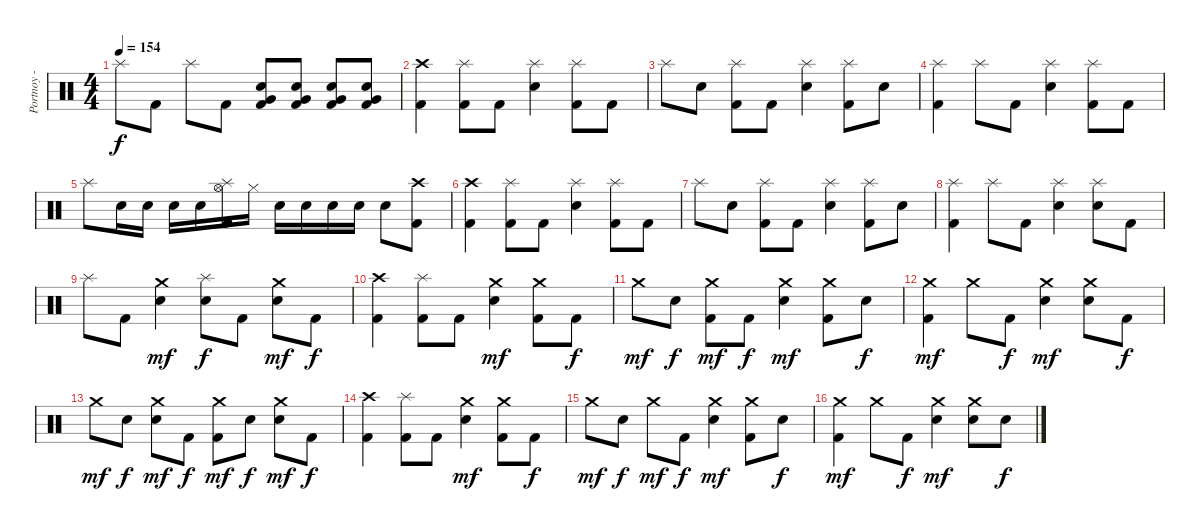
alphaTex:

\track ("Portnoy - Drums" "Portnoy - ") {instrument percussion}
\staff {score}
\articulation defaults
\ts (4 4)
\tempo 154
\clef neutral
\ks c "Splash (hit)".8{dy f} "Kick (hit) 2".8 "Splash (hit)".8 "Kick (hit) 2".8
("Electric Snare (hit)" "Kick (hit) 2" "Very Low Tom (hit)").8 ("Electric Snare (hit)" "Kick (hit) 2" "Very Low Tom (hit)").8 ("Electric Snare (hit)" "Kick (hit) 2" "Very Low Tom (hit)").8 ("Electric Snare (hit)" "Kick (hit) 2" "Very Low Tom (hit)").8 |
("Kick (hit) 2" "Crash high (hit)").4 ("Kick (hit) 2" "Splash (hit)").8 "Kick (hit) 2".8 ("Electric Snare (hit)" "Splash (hit)").4 ("Kick (hit) 2" "Splash (hit)").8 "Kick (hit) 2".8 |
"Splash (hit)".8 "Electric Snare (hit)".8 ("Kick (hit) 2" "Splash (hit)").8 "Kick (hit) 2".8 ("Electric Snare (hit)" "Splash (hit)").4 ("Kick (hit) 2" "Splash (hit)").8 "Electric Snare (hit)".8 |
("Kick (hit) 2" "Splash (hit)").4 "Splash (hit)".8 "Kick (hit) 2".8 ("Electric Snare (hit)" "Splash (hit)").4 ("Kick (hit) 2" "Splash (hit)").8 "Kick (hit) 2".8 |
"Splash (hit)".8 "Electric Snare (hit)".16 "Electric Snare (hit)".16 "Electric Snare (hit)".16 "Electric Snare (hit)".16 ("Kick (hit) 2" "Hi-Hat (open)" "Splash (hit)").16 "Hi-Hat (closed)".16 "Electric Snare (hit)".16 "Electric Snare (hit)".16 "Electric Snare (hit)".16 "Electric Snare (hit)".16 "Electric Snare (hit)".8 ("Kick (hit) 2" "Crash high (hit)").8 |
("Crash high (hit)" "Kick (hit) 2").4 ("Kick (hit) 2" "Splash (hit)").8 "Kick (hit) 2".8 ("Electric Snare (hit)" "Splash (hit)").4 ("Kick (hit) 2" "Splash (hit)").8 "Kick (hit) 2".8 |
"Splash (hit)".8 "Electric Snare (hit)".8 ("Kick (hit) 2" "Splash (hit)").8 "Kick (hit) 2".8 ("Electric Snare (hit)" "Splash (hit)").4 ("Kick (hit) 2" "Splash (hit)").8 "Electric Snare (hit)".8 |
("Kick (hit) 2" "Splash (hit)").4 "Splash (hit)".8 "Kick (hit) 2".8 ("Electric Snare (hit)" "Splash (hit)").4 ("Electric Snare (hit)" "Splash (hit)").8 "Kick (hit) 2".8 |
"Splash (hit)".8 "Kick (hit) 2".8 ("Electric Snare (hit)" "Crash medium (hit)").4{dy mf} ("Electric Snare (hit)" "Splash (hit)").8{dy f} "Kick (hit) 2".8 ("Electric Snare (hit)" "Crash medium (hit)").8{dy mf} "Kick (hit) 2".8{dy f} |
("Kick (hit) 2" "Crash high (hit)").4 ("Kick (hit) 2" "Splash (hit)").8 "Kick (hit) 2".8 ("Electric Snare (hit)" "Crash medium (hit)").4{dy mf} ("Kick (hit) 2" "Crash medium (hit)").8 "Kick (hit) 2".8{dy f} |
"Crash medium (hit)".8{dy mf} "Electric Snare (hit)".8{dy f} ("Kick (hit) 2" "Crash medium (hit)").8{dy mf} "Kick (hit) 2".8{dy f} ("Electric Snare (hit)" "Crash medium (hit)").4{dy mf} ("Kick (hit) 2" "Crash medium (hit)").8 "Electric Snare (hit)".8{dy f} |
("Kick (hit) 2" "Crash medium (hit)").4{dy mf} "Crash medium (hit)".8 "Kick (hit) 2".8{dy f} ("Electric Snare (hit)" "Crash medium (hit)").4{dy mf} ("Electric Snare (hit)" "Crash medium (hit)").8 "Kick (hit) 2".8{dy f} |
"Crash medium (hit)".8{dy mf} "Electric Snare (hit)".8{dy f} ("Electric Snare (hit)" "Crash medium (hit)").8{dy mf} "Kick (hit) 2".8{dy f} ("Kick (hit) 2" "Crash medium (hit)").8{dy mf} "Electric Snare (hit)".8{dy f} ("Electric Snare (hit)" "Crash medium (hit)").8{dy mf} "Kick (hit) 2".8{dy f} |
("Crash high (hit)" "Kick (hit) 2").4 ("Kick (hit) 2" "Splash (hit)").8 "Kick (hit) 2".8 ("Electric Snare (hit)" "Crash medium (hit)").4{dy mf} ("Kick (hit) 2" "Crash medium (hit)").8 "Kick (hit) 2".8{dy f} |
"Crash medium (hit)".8{dy mf} "Electric Snare (hit)".8{dy f} "Crash medium (hit)".8{dy mf} "Kick (hit) 2".8{dy f} ("Electric Snare (hit)" "Crash medium (hit)").4{dy mf} ("Kick (hit) 2" "Crash medium (hit)").8 "Electric Snare (hit)".8{dy f} |
("Kick (hit) 2" "Crash medium (hit)").4{dy mf} "Crash medium (hit)".8 "Kick (hit) 2".8{dy f} ("Electric Snare (hit)" "Crash medium (hit)").4{dy mf} ("Electric Snare (hit)" "Crash medium (hit)").8 "Electric Snare (hit)".8{dy f}
